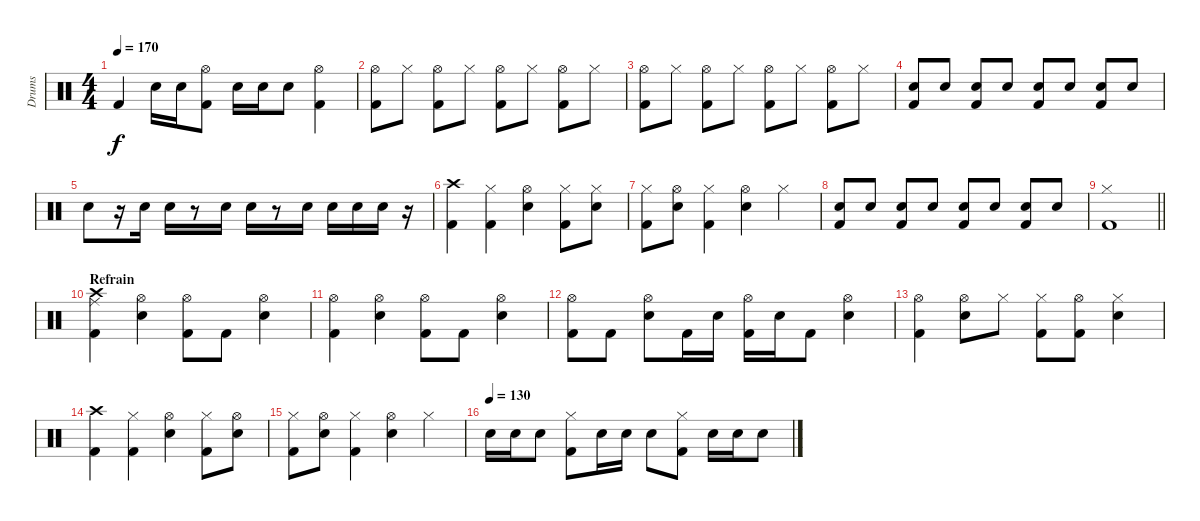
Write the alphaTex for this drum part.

\track ("Drums" "Drums") {instrument percussion}
\staff {score}
\articulation defaults
\ts (4 4)
\tempo 170
\clef neutral
\ks c "Kick (hit) 2".4{dy f} "Electric Snare (hit)".16 "Electric Snare (hit)".16
("Kick (hit) 2" "Hi-Hat (open)").8 "Electric Snare (hit)".16 "Electric Snare (hit)".16 "Electric Snare (hit)".8 ("Kick (hit) 2" "Hi-Hat (open)").4 |
("Kick (hit) 2" "Hi-Hat (open)").8 "Hi-Hat (closed)".8 ("Kick (hit) 2" "Hi-Hat (open)").8 "Hi-Hat (closed)".8 ("Kick (hit) 2" "Hi-Hat (open)").8 "Hi-Hat (closed)".8 ("Kick (hit) 2" "Hi-Hat (open)").8 "Hi-Hat (closed)".8 |
("Kick (hit) 2" "Hi-Hat (open)").8 "Hi-Hat (closed)".8 ("Kick (hit) 2" "Hi-Hat (open)").8 "Hi-Hat (closed)".8 ("Kick (hit) 2" "Hi-Hat (open)").8 "Hi-Hat (closed)".8 ("Kick (hit) 2" "Hi-Hat (open)").8 "Hi-Hat (closed)".8 |
("Electric Snare (hit)" "Kick (hit) 2").8 "Electric Snare (hit)".8 ("Electric Snare (hit)" "Kick (hit) 2").8 "Electric Snare (hit)".8 ("Electric Snare (hit)" "Kick (hit) 2").8 "Electric Snare (hit)".8 ("Electric Snare (hit)" "Kick (hit) 2").8 "Electric Snare (hit)".8 |
"Electric Snare (hit)".8 r.16 "Electric Snare (hit)".16 "Electric Snare (hit)".16 r.8 "Electric Snare (hit)".16 "Electric Snare (hit)".16 r.8 "Electric Snare (hit)".16 "Electric Snare (hit)".16 "Electric Snare (hit)".16 "Electric Snare (hit)".16 r.16 |
("Kick (hit) 2" "Crash high (hit)").4 ("Kick (hit) 2" "Hi-Hat (closed)").4 ("Electric Snare (hit)" "Hi-Hat (open)").4 ("Kick (hit) 2" "Hi-Hat (closed)").8 ("Electric Snare (hit)" "Hi-Hat (closed)").8 |
("Kick (hit) 2" "Hi-Hat (closed)").8 ("Electric Snare (hit)" "Hi-Hat (open)").8 ("Kick (hit) 2" "Hi-Hat (closed)").4 ("Electric Snare (hit)" "Hi-Hat (open)").4 "Hi-Hat (closed)".4 |
("Electric Snare (hit)" "Kick (hit) 2").8 "Electric Snare (hit)".8 ("Electric Snare (hit)" "Kick (hit) 2").8 "Electric Snare (hit)".8 ("Electric Snare (hit)" "Kick (hit) 2").8 "Electric Snare (hit)".8 ("Electric Snare (hit)" "Kick (hit) 2").8 "Electric Snare (hit)".8 |
\barLineRight lightlight
("Kick (hit) 2" "Hi-Hat (closed)").1 |
\section ("" "Refrain")
("Kick (hit) 2" "Ride (middle)" "Crash high (hit)").4 ("Electric Snare (hit)" "Hi-Hat (open)").4 ("Kick (hit) 2" "Hi-Hat (open)").8 "Kick (hit) 2".8 ("Electric Snare (hit)" "Hi-Hat (open)").4 |
("Kick (hit) 2" "Hi-Hat (open)").4 ("Electric Snare (hit)" "Hi-Hat (open)").4 ("Kick (hit) 2" "Hi-Hat (open)").8 "Kick (hit) 2".8 ("Electric Snare (hit)" "Hi-Hat (open)").4 |
("Kick (hit) 2" "Hi-Hat (open)").8 "Kick (hit) 2".8 ("Electric Snare (hit)" "Hi-Hat (open)").8 "Kick (hit) 2".16 "Electric Snare (hit)".16 ("Kick (hit) 2" "Hi-Hat (open)").16 "Electric Snare (hit)".16 "Kick (hit) 2".8 ("Electric Snare (hit)" "Hi-Hat (open)").4 |
("Kick (hit) 2" "Hi-Hat (open)").4 ("Electric Snare (hit)" "Hi-Hat (open)").8 "Hi-Hat (closed)".8 ("Kick (hit) 2" "Hi-Hat (closed)").8 ("Kick (hit) 2" "Hi-Hat (open)").8 ("Electric Snare (hit)" "Hi-Hat (closed)").4 |
("Kick (hit) 2" "Crash high (hit)").4 ("Kick (hit) 2" "Hi-Hat (closed)").4 ("Electric Snare (hit)" "Hi-Hat (open)").4 ("Kick (hit) 2" "Hi-Hat (closed)").8 ("Electric Snare (hit)" "Hi-Hat (open)").8 |
("Kick (hit) 2" "Hi-Hat (closed)").8 ("Electric Snare (hit)" "Hi-Hat (open)").8 ("Kick (hit) 2" "Hi-Hat (closed)").4 ("Electric Snare (hit)" "Hi-Hat (open)").4 "Hi-Hat (closed)".4 |
\tempo (130)
"Electric Snare (hit)".16 "Electric Snare (hit)".16 "Electric Snare (hit)".8 ("Kick (hit) 2" "Hi-Hat (closed)").8 "Electric Snare (hit)".16 "Electric Snare (hit)".16 "Electric Snare (hit)".8 ("Kick (hit) 2" "Hi-Hat (closed)").8 "Electric Snare (hit)".16 "Electric Snare (hit)".16 "Electric Snare (hit)".8
